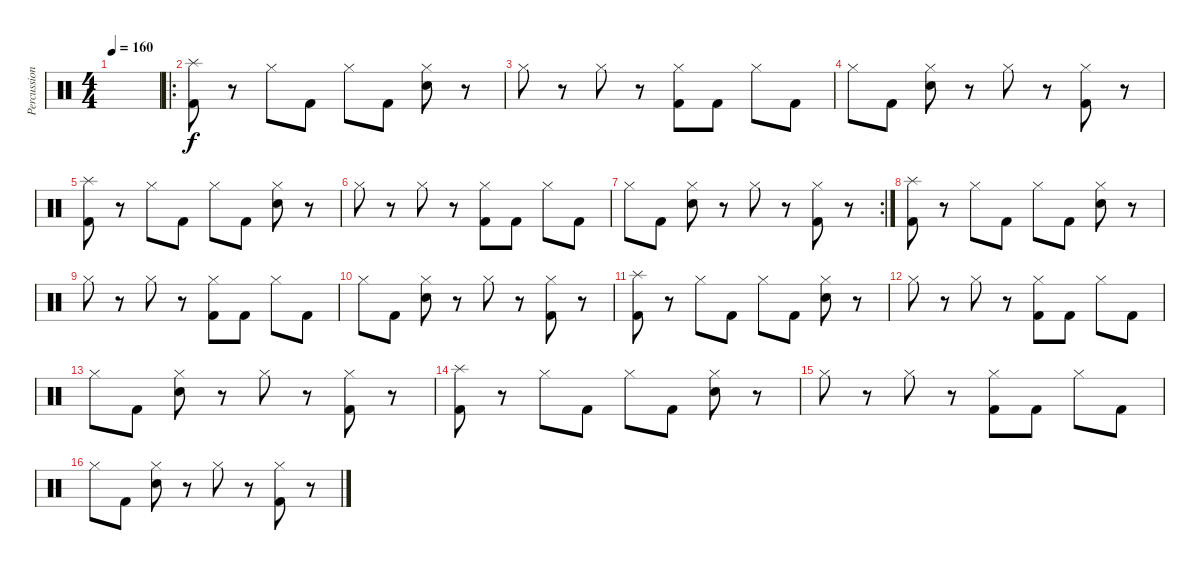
\track ("Percussion" "Percussion") {instrument percussion}
\staff {score}
\articulation defaults
\ts (4 4)
\tempo 160
\clef neutral
\ks c
|
\ro
("Splash (hit)" "Kick (hit) 2").8 r.8 "Hi-Hat (closed)".8 "Kick (hit) 2".8 "Hi-Hat (closed)".8 "Kick (hit) 2".8 ("Hi-Hat (closed)" "Electric Snare (hit)").8 r.8 |
"Hi-Hat (closed)".8 r.8 "Hi-Hat (closed)".8 r.8 ("Hi-Hat (closed)" "Kick (hit) 2").8 "Kick (hit) 2".8 "Hi-Hat (closed)".8 "Kick (hit) 2".8 |
"Hi-Hat (closed)".8 "Kick (hit) 2".8 ("Hi-Hat (closed)" "Electric Snare (hit)").8 r.8 "Hi-Hat (closed)".8 r.8 ("Hi-Hat (closed)" "Kick (hit) 2").8 r.8 |
("Splash (hit)" "Kick (hit) 2").8 r.8 "Hi-Hat (closed)".8 "Kick (hit) 2".8 "Hi-Hat (closed)".8 "Kick (hit) 2".8 ("Hi-Hat (closed)" "Electric Snare (hit)").8 r.8 |
"Hi-Hat (closed)".8 r.8 "Hi-Hat (closed)".8 r.8 ("Hi-Hat (closed)" "Kick (hit) 2").8 "Kick (hit) 2".8 "Hi-Hat (closed)".8 "Kick (hit) 2".8 |
\rc 2 "Hi-Hat (closed)".8 "Kick (hit) 2".8
("Hi-Hat (closed)" "Electric Snare (hit)").8 r.8 "Hi-Hat (closed)".8 r.8 ("Hi-Hat (closed)" "Kick (hit) 2").8 r.8 |
("Splash (hit)" "Kick (hit) 2").8 r.8 "Hi-Hat (closed)".8 "Kick (hit) 2".8 "Hi-Hat (closed)".8 "Kick (hit) 2".8 ("Hi-Hat (closed)" "Electric Snare (hit)").8 r.8 |
"Hi-Hat (closed)".8 r.8 "Hi-Hat (closed)".8 r.8 ("Hi-Hat (closed)" "Kick (hit) 2").8 "Kick (hit) 2".8 "Hi-Hat (closed)".8 "Kick (hit) 2".8 |
"Hi-Hat (closed)".8 "Kick (hit) 2".8 ("Hi-Hat (closed)" "Electric Snare (hit)").8 r.8 "Hi-Hat (closed)".8 r.8 ("Hi-Hat (closed)" "Kick (hit) 2").8 r.8 |
("Splash (hit)" "Kick (hit) 2").8 r.8 "Hi-Hat (closed)".8 "Kick (hit) 2".8 "Hi-Hat (closed)".8 "Kick (hit) 2".8 ("Hi-Hat (closed)" "Electric Snare (hit)").8 r.8 |
"Hi-Hat (closed)".8 r.8 "Hi-Hat (closed)".8 r.8 ("Hi-Hat (closed)" "Kick (hit) 2").8 "Kick (hit) 2".8 "Hi-Hat (closed)".8 "Kick (hit) 2".8 |
"Hi-Hat (closed)".8 "Kick (hit) 2".8 ("Hi-Hat (closed)" "Electric Snare (hit)").8 r.8 "Hi-Hat (closed)".8 r.8 ("Hi-Hat (closed)" "Kick (hit) 2").8 r.8 |
("Splash (hit)" "Kick (hit) 2").8 r.8 "Hi-Hat (closed)".8 "Kick (hit) 2".8 "Hi-Hat (closed)".8 "Kick (hit) 2".8 ("Hi-Hat (closed)" "Electric Snare (hit)").8 r.8 |
"Hi-Hat (closed)".8 r.8 "Hi-Hat (closed)".8 r.8 ("Hi-Hat (closed)" "Kick (hit) 2").8 "Kick (hit) 2".8 "Hi-Hat (closed)".8 "Kick (hit) 2".8 |
"Hi-Hat (closed)".8 "Kick (hit) 2".8 ("Hi-Hat (closed)" "Electric Snare (hit)").8 r.8 "Hi-Hat (closed)".8 r.8 ("Hi-Hat (closed)" "Kick (hit) 2").8 r.8
